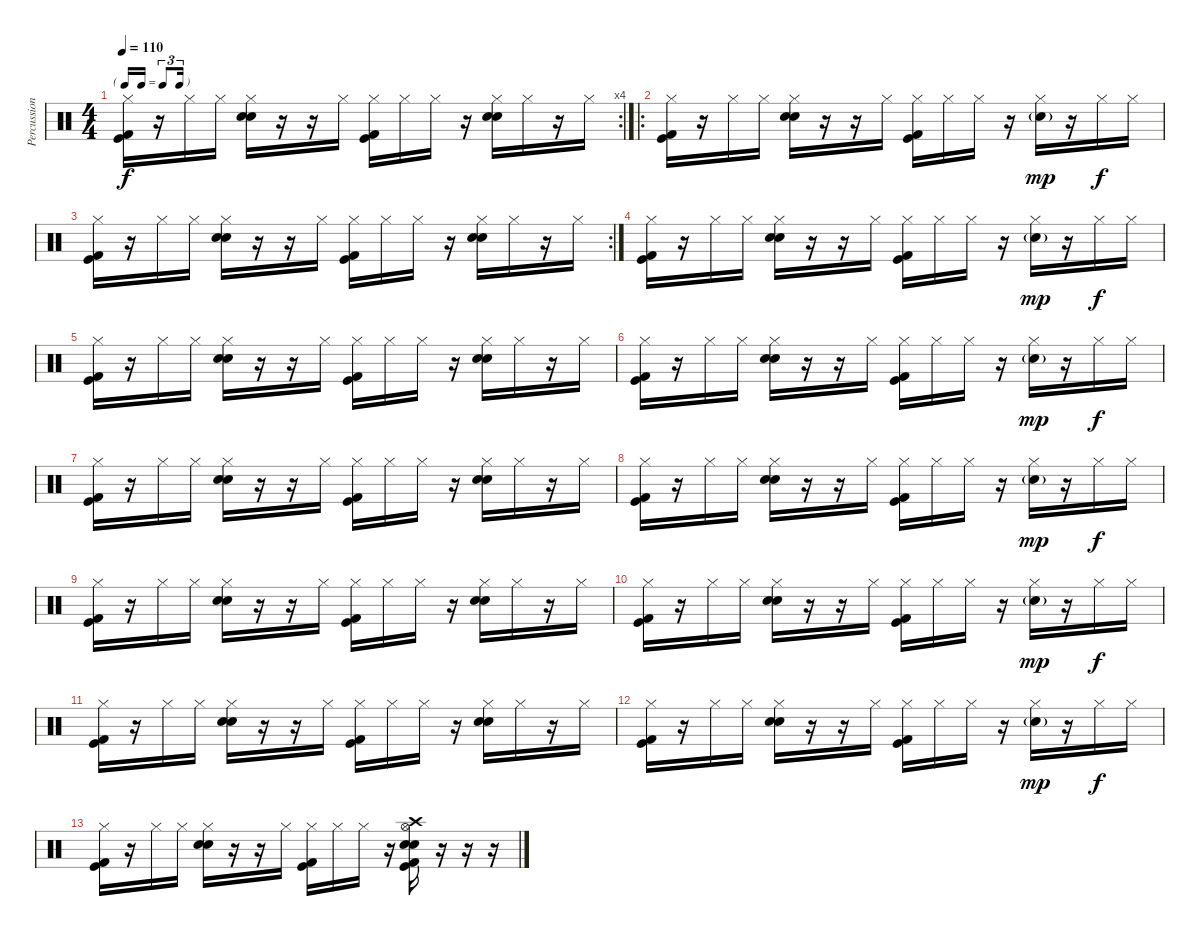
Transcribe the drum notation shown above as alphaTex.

\track ("Percussion" "Percussion") {instrument percussion}
\staff {score}
\articulation defaults
\rc 4
\ts (4 4)
\tf triplet16th
\tempo 110
\clef neutral
\ks c
("Kick (hit) 2" "Kick (hit)" "Hi-Hat (closed)").16{dy f} r.16 "Hi-Hat (closed)".16 "Hi-Hat (closed)".16 ("Electric Snare (hit)" "Snare (hit) 2" "Hi-Hat (closed)").16 r.16 r.16 "Hi-Hat (closed)".16 ("Kick (hit) 2" "Kick (hit)" "Hi-Hat (closed)").16 "Hi-Hat (closed)".16 "Hi-Hat (closed)".16 r.16 ("Electric Snare (hit)" "Snare (hit) 2" "Hi-Hat (closed)").16 "Hi-Hat (closed)".16 r.16 "Hi-Hat (closed)".16 |
\ro
("Kick (hit) 2" "Kick (hit)" "Hi-Hat (closed)").16 r.16 "Hi-Hat (closed)".16 "Hi-Hat (closed)".16 ("Electric Snare (hit)" "Snare (hit) 2" "Hi-Hat (closed)").16 r.16 r.16 "Hi-Hat (closed)".16 ("Kick (hit) 2" "Kick (hit)" "Hi-Hat (closed)").16 "Hi-Hat (closed)".16 "Hi-Hat (closed)".16 r.16 ("Hi-Hat (closed)" "Snare (hit) 2"{g}).16{dy mp} r.16 "Hi-Hat (closed)".16{dy f} "Hi-Hat (closed)".16 |
\rc 2
("Kick (hit) 2" "Kick (hit)" "Hi-Hat (closed)").16 r.16 "Hi-Hat (closed)".16 "Hi-Hat (closed)".16 ("Electric Snare (hit)" "Snare (hit) 2" "Hi-Hat (closed)").16 r.16 r.16 "Hi-Hat (closed)".16 ("Kick (hit) 2" "Kick (hit)" "Hi-Hat (closed)").16 "Hi-Hat (closed)".16 "Hi-Hat (closed)".16 r.16 ("Electric Snare (hit)" "Snare (hit) 2" "Hi-Hat (closed)").16 "Hi-Hat (closed)".16 r.16 "Hi-Hat (closed)".16 |
("Kick (hit) 2" "Kick (hit)" "Hi-Hat (closed)").16 r.16 "Hi-Hat (closed)".16 "Hi-Hat (closed)".16 ("Electric Snare (hit)" "Snare (hit) 2" "Hi-Hat (closed)").16 r.16 r.16 "Hi-Hat (closed)".16 ("Kick (hit) 2" "Kick (hit)" "Hi-Hat (closed)").16 "Hi-Hat (closed)".16 "Hi-Hat (closed)".16 r.16 ("Hi-Hat (closed)" "Snare (hit) 2"{g}).16{dy mp} r.16 "Hi-Hat (closed)".16{dy f} "Hi-Hat (closed)".16 |
("Kick (hit) 2" "Kick (hit)" "Hi-Hat (closed)").16 r.16 "Hi-Hat (closed)".16 "Hi-Hat (closed)".16 ("Electric Snare (hit)" "Snare (hit) 2" "Hi-Hat (closed)").16 r.16 r.16 "Hi-Hat (closed)".16 ("Kick (hit) 2" "Kick (hit)" "Hi-Hat (closed)").16 "Hi-Hat (closed)".16 "Hi-Hat (closed)".16 r.16 ("Electric Snare (hit)" "Snare (hit) 2" "Hi-Hat (closed)").16 "Hi-Hat (closed)".16 r.16 "Hi-Hat (closed)".16 |
("Kick (hit) 2" "Kick (hit)" "Hi-Hat (closed)").16 r.16 "Hi-Hat (closed)".16 "Hi-Hat (closed)".16 ("Electric Snare (hit)" "Snare (hit) 2" "Hi-Hat (closed)").16 r.16 r.16 "Hi-Hat (closed)".16 ("Kick (hit) 2" "Kick (hit)" "Hi-Hat (closed)").16 "Hi-Hat (closed)".16 "Hi-Hat (closed)".16 r.16 ("Hi-Hat (closed)" "Snare (hit) 2"{g}).16{dy mp} r.16 "Hi-Hat (closed)".16{dy f} "Hi-Hat (closed)".16 |
("Kick (hit) 2" "Kick (hit)" "Hi-Hat (closed)").16 r.16 "Hi-Hat (closed)".16 "Hi-Hat (closed)".16 ("Electric Snare (hit)" "Snare (hit) 2" "Hi-Hat (closed)").16 r.16 r.16 "Hi-Hat (closed)".16 ("Kick (hit) 2" "Kick (hit)" "Hi-Hat (closed)").16 "Hi-Hat (closed)".16 "Hi-Hat (closed)".16 r.16 ("Electric Snare (hit)" "Snare (hit) 2" "Hi-Hat (closed)").16 "Hi-Hat (closed)".16 r.16 "Hi-Hat (closed)".16 |
("Kick (hit) 2" "Kick (hit)" "Hi-Hat (closed)").16 r.16 "Hi-Hat (closed)".16 "Hi-Hat (closed)".16 ("Electric Snare (hit)" "Snare (hit) 2" "Hi-Hat (closed)").16 r.16 r.16 "Hi-Hat (closed)".16 ("Kick (hit) 2" "Kick (hit)" "Hi-Hat (closed)").16 "Hi-Hat (closed)".16 "Hi-Hat (closed)".16 r.16 ("Hi-Hat (closed)" "Snare (hit) 2"{g}).16{dy mp} r.16 "Hi-Hat (closed)".16{dy f} "Hi-Hat (closed)".16 |
("Kick (hit) 2" "Kick (hit)" "Hi-Hat (closed)").16 r.16 "Hi-Hat (closed)".16 "Hi-Hat (closed)".16 ("Electric Snare (hit)" "Snare (hit) 2" "Hi-Hat (closed)").16 r.16 r.16 "Hi-Hat (closed)".16 ("Kick (hit) 2" "Kick (hit)" "Hi-Hat (closed)").16 "Hi-Hat (closed)".16 "Hi-Hat (closed)".16 r.16 ("Electric Snare (hit)" "Snare (hit) 2" "Hi-Hat (closed)").16 "Hi-Hat (closed)".16 r.16 "Hi-Hat (closed)".16 |
("Kick (hit) 2" "Kick (hit)" "Hi-Hat (closed)").16 r.16 "Hi-Hat (closed)".16 "Hi-Hat (closed)".16 ("Electric Snare (hit)" "Snare (hit) 2" "Hi-Hat (closed)").16 r.16 r.16 "Hi-Hat (closed)".16 ("Kick (hit) 2" "Kick (hit)" "Hi-Hat (closed)").16 "Hi-Hat (closed)".16 "Hi-Hat (closed)".16 r.16 ("Hi-Hat (closed)" "Snare (hit) 2"{g}).16{dy mp} r.16 "Hi-Hat (closed)".16{dy f} "Hi-Hat (closed)".16 |
("Kick (hit) 2" "Kick (hit)" "Hi-Hat (closed)").16 r.16 "Hi-Hat (closed)".16 "Hi-Hat (closed)".16 ("Electric Snare (hit)" "Snare (hit) 2" "Hi-Hat (closed)").16 r.16 r.16 "Hi-Hat (closed)".16 ("Kick (hit) 2" "Kick (hit)" "Hi-Hat (closed)").16 "Hi-Hat (closed)".16 "Hi-Hat (closed)".16 r.16 ("Electric Snare (hit)" "Snare (hit) 2" "Hi-Hat (closed)").16 "Hi-Hat (closed)".16 r.16 "Hi-Hat (closed)".16 |
("Kick (hit) 2" "Kick (hit)" "Hi-Hat (closed)").16 r.16 "Hi-Hat (closed)".16 "Hi-Hat (closed)".16 ("Electric Snare (hit)" "Snare (hit) 2" "Hi-Hat (closed)").16 r.16 r.16 "Hi-Hat (closed)".16 ("Kick (hit) 2" "Kick (hit)" "Hi-Hat (closed)").16 "Hi-Hat (closed)".16 "Hi-Hat (closed)".16 r.16 ("Hi-Hat (closed)" "Snare (hit) 2"{g}).16{dy mp} r.16 "Hi-Hat (closed)".16{dy f} "Hi-Hat (closed)".16 |
("Kick (hit) 2" "Kick (hit)" "Hi-Hat (closed)").16 r.16 "Hi-Hat (closed)".16 "Hi-Hat (closed)".16 ("Electric Snare (hit)" "Snare (hit) 2" "Hi-Hat (closed)").16 r.16 r.16 "Hi-Hat (closed)".16 ("Kick (hit) 2" "Kick (hit)" "Hi-Hat (closed)").16 "Hi-Hat (closed)".16 "Hi-Hat (closed)".16 r.16 ("Electric Snare (hit)" "Snare (hit) 2" "Kick (hit) 2" "Kick (hit)" "Hi-Hat (open)" "Crash high (hit)").16 r.16 r.16 r.16
